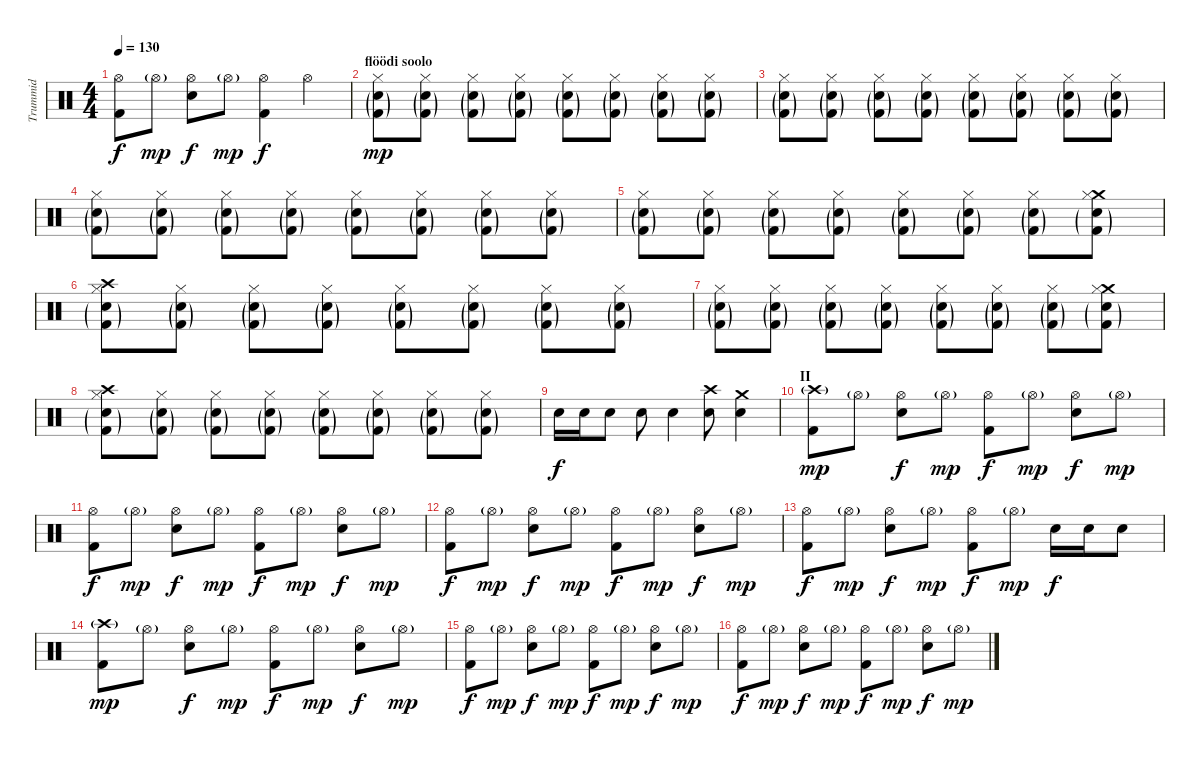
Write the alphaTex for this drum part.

\track ("Trummid" "Trummid") {instrument percussion}
\staff {score}
\articulation defaults
\ts (4 4)
\tempo 130
\clef neutral
\ks c
("Hi-Hat (open)" "Kick (hit) 2").8{dy f} "Hi-Hat (open)"{g}.8{dy mp} ("Hi-Hat (open)" "Snare (hit) 2").8{dy f} "Hi-Hat (open)"{g}.8{dy mp} ("Hi-Hat (open)" "Kick (hit) 2").4{dy f} "Hi-Hat (open)".4 |
\section ("" "flöödi soolo")
("Hi-Hat (closed)" "Snare (hit) 2"{g} "Kick (hit) 2"{g}).8{dy mp} ("Hi-Hat (closed)" "Snare (hit) 2"{g} "Kick (hit) 2"{g}).8 ("Hi-Hat (closed)" "Snare (hit) 2"{g} "Kick (hit) 2"{g}).8 ("Hi-Hat (closed)" "Snare (hit) 2"{g} "Kick (hit) 2"{g}).8 ("Hi-Hat (closed)" "Snare (hit) 2"{g} "Kick (hit) 2"{g}).8 ("Hi-Hat (closed)" "Snare (hit) 2"{g} "Kick (hit) 2"{g}).8 ("Hi-Hat (closed)" "Snare (hit) 2"{g} "Kick (hit) 2"{g}).8 ("Hi-Hat (closed)" "Snare (hit) 2"{g} "Kick (hit) 2"{g}).8 |
("Hi-Hat (closed)" "Snare (hit) 2"{g} "Kick (hit) 2"{g}).8 ("Hi-Hat (closed)" "Snare (hit) 2"{g} "Kick (hit) 2"{g}).8 ("Hi-Hat (closed)" "Snare (hit) 2"{g} "Kick (hit) 2"{g}).8 ("Hi-Hat (closed)" "Snare (hit) 2"{g} "Kick (hit) 2"{g}).8 ("Hi-Hat (closed)" "Snare (hit) 2"{g} "Kick (hit) 2"{g}).8 ("Hi-Hat (closed)" "Snare (hit) 2"{g} "Kick (hit) 2"{g}).8 ("Hi-Hat (closed)" "Snare (hit) 2"{g} "Kick (hit) 2"{g}).8 ("Hi-Hat (closed)" "Snare (hit) 2"{g} "Kick (hit) 2"{g}).8 |
("Hi-Hat (closed)" "Snare (hit) 2"{g} "Kick (hit) 2"{g}).8 ("Hi-Hat (closed)" "Snare (hit) 2"{g} "Kick (hit) 2"{g}).8 ("Hi-Hat (closed)" "Snare (hit) 2"{g} "Kick (hit) 2"{g}).8 ("Hi-Hat (closed)" "Snare (hit) 2"{g} "Kick (hit) 2"{g}).8 ("Hi-Hat (closed)" "Snare (hit) 2"{g} "Kick (hit) 2"{g}).8 ("Hi-Hat (closed)" "Snare (hit) 2"{g} "Kick (hit) 2"{g}).8 ("Hi-Hat (closed)" "Snare (hit) 2"{g} "Kick (hit) 2"{g}).8 ("Hi-Hat (closed)" "Snare (hit) 2"{g} "Kick (hit) 2"{g}).8 |
("Hi-Hat (closed)" "Snare (hit) 2"{g} "Kick (hit) 2"{g}).8 ("Hi-Hat (closed)" "Snare (hit) 2"{g} "Kick (hit) 2"{g}).8 ("Hi-Hat (closed)" "Snare (hit) 2"{g} "Kick (hit) 2"{g}).8 ("Hi-Hat (closed)" "Snare (hit) 2"{g} "Kick (hit) 2"{g}).8 ("Hi-Hat (closed)" "Snare (hit) 2"{g} "Kick (hit) 2"{g}).8 ("Hi-Hat (closed)" "Snare (hit) 2"{g} "Kick (hit) 2"{g}).8 ("Hi-Hat (closed)" "Snare (hit) 2"{g} "Kick (hit) 2"{g}).8 ("Crash medium (hit)" "Hi-Hat (closed)" "Snare (hit) 2"{g} "Kick (hit) 2"{g}).8 |
("Crash high (hit)" "Hi-Hat (closed)" "Snare (hit) 2"{g} "Kick (hit) 2"{g}).8 ("Hi-Hat (closed)" "Snare (hit) 2"{g} "Kick (hit) 2"{g}).8 ("Hi-Hat (closed)" "Snare (hit) 2"{g} "Kick (hit) 2"{g}).8 ("Hi-Hat (closed)" "Snare (hit) 2"{g} "Kick (hit) 2"{g}).8 ("Hi-Hat (closed)" "Snare (hit) 2"{g} "Kick (hit) 2"{g}).8 ("Hi-Hat (closed)" "Snare (hit) 2"{g} "Kick (hit) 2"{g}).8 ("Hi-Hat (closed)" "Snare (hit) 2"{g} "Kick (hit) 2"{g}).8 ("Hi-Hat (closed)" "Snare (hit) 2"{g} "Kick (hit) 2"{g}).8 |
("Hi-Hat (closed)" "Snare (hit) 2"{g} "Kick (hit) 2"{g}).8 ("Hi-Hat (closed)" "Snare (hit) 2"{g} "Kick (hit) 2"{g}).8 ("Hi-Hat (closed)" "Snare (hit) 2"{g} "Kick (hit) 2"{g}).8 ("Hi-Hat (closed)" "Snare (hit) 2"{g} "Kick (hit) 2"{g}).8 ("Hi-Hat (closed)" "Snare (hit) 2"{g} "Kick (hit) 2"{g}).8 ("Hi-Hat (closed)" "Snare (hit) 2"{g} "Kick (hit) 2"{g}).8 ("Hi-Hat (closed)" "Snare (hit) 2"{g} "Kick (hit) 2"{g}).8 ("Crash medium (hit)" "Hi-Hat (closed)" "Snare (hit) 2"{g} "Kick (hit) 2"{g}).8 |
("Crash high (hit)" "Hi-Hat (closed)" "Snare (hit) 2"{g} "Kick (hit) 2"{g}).8 ("Hi-Hat (closed)" "Snare (hit) 2"{g} "Kick (hit) 2"{g}).8 ("Hi-Hat (closed)" "Snare (hit) 2"{g} "Kick (hit) 2"{g}).8 ("Hi-Hat (closed)" "Snare (hit) 2"{g} "Kick (hit) 2"{g}).8 ("Hi-Hat (closed)" "Snare (hit) 2"{g} "Kick (hit) 2"{g}).8 ("Hi-Hat (closed)" "Snare (hit) 2"{g} "Kick (hit) 2"{g}).8 ("Hi-Hat (closed)" "Snare (hit) 2"{g} "Kick (hit) 2"{g}).8 ("Hi-Hat (closed)" "Snare (hit) 2"{g} "Kick (hit) 2"{g}).8 |
"Snare (hit) 2".16{dy f} "Snare (hit) 2".16 "Snare (hit) 2".8 "Snare (hit) 2".8 "Snare (hit) 2".4 ("Crash high (hit)" "Snare (hit) 2").8 ("Crash medium (hit)" "Snare (hit) 2").4 |
\section ("" "II")
("Crash high (hit)"{g} "Kick (hit) 2").8{dy mp} "Hi-Hat (open)"{g}.8 ("Hi-Hat (open)" "Snare (hit) 2").8{dy f} "Hi-Hat (open)"{g}.8{dy mp} ("Hi-Hat (open)" "Kick (hit) 2").8{dy f} "Hi-Hat (open)"{g}.8{dy mp} ("Hi-Hat (open)" "Snare (hit) 2").8{dy f} "Hi-Hat (open)"{g}.8{dy mp} |
("Hi-Hat (open)" "Kick (hit) 2").8{dy f} "Hi-Hat (open)"{g}.8{dy mp} ("Hi-Hat (open)" "Snare (hit) 2").8{dy f} "Hi-Hat (open)"{g}.8{dy mp} ("Hi-Hat (open)" "Kick (hit) 2").8{dy f} "Hi-Hat (open)"{g}.8{dy mp} ("Hi-Hat (open)" "Snare (hit) 2").8{dy f} "Hi-Hat (open)"{g}.8{dy mp} |
("Hi-Hat (open)" "Kick (hit) 2").8{dy f} "Hi-Hat (open)"{g}.8{dy mp} ("Hi-Hat (open)" "Snare (hit) 2").8{dy f} "Hi-Hat (open)"{g}.8{dy mp} ("Hi-Hat (open)" "Kick (hit) 2").8{dy f} "Hi-Hat (open)"{g}.8{dy mp} ("Hi-Hat (open)" "Snare (hit) 2").8{dy f} "Hi-Hat (open)"{g}.8{dy mp} |
("Hi-Hat (open)" "Kick (hit) 2").8{dy f} "Hi-Hat (open)"{g}.8{dy mp} ("Hi-Hat (open)" "Snare (hit) 2").8{dy f} "Hi-Hat (open)"{g}.8{dy mp} ("Hi-Hat (open)" "Kick (hit) 2").8{dy f} "Hi-Hat (open)"{g}.8{dy mp} "Snare (hit) 2".16{dy f} "Snare (hit) 2".16 "Snare (hit) 2".8 |
("Crash high (hit)"{g} "Kick (hit) 2").8{dy mp} "Hi-Hat (open)"{g}.8 ("Hi-Hat (open)" "Snare (hit) 2").8{dy f} "Hi-Hat (open)"{g}.8{dy mp} ("Hi-Hat (open)" "Kick (hit) 2").8{dy f} "Hi-Hat (open)"{g}.8{dy mp} ("Hi-Hat (open)" "Snare (hit) 2").8{dy f} "Hi-Hat (open)"{g}.8{dy mp} |
("Hi-Hat (open)" "Kick (hit) 2").8{dy f} "Hi-Hat (open)"{g}.8{dy mp} ("Hi-Hat (open)" "Snare (hit) 2").8{dy f} "Hi-Hat (open)"{g}.8{dy mp} ("Hi-Hat (open)" "Kick (hit) 2").8{dy f} "Hi-Hat (open)"{g}.8{dy mp} ("Hi-Hat (open)" "Snare (hit) 2").8{dy f} "Hi-Hat (open)"{g}.8{dy mp} |
("Hi-Hat (open)" "Kick (hit) 2").8{dy f} "Hi-Hat (open)"{g}.8{dy mp} ("Hi-Hat (open)" "Snare (hit) 2").8{dy f} "Hi-Hat (open)"{g}.8{dy mp} ("Hi-Hat (open)" "Kick (hit) 2").8{dy f} "Hi-Hat (open)"{g}.8{dy mp} ("Hi-Hat (open)" "Snare (hit) 2").8{dy f} "Hi-Hat (open)"{g}.8{dy mp}
